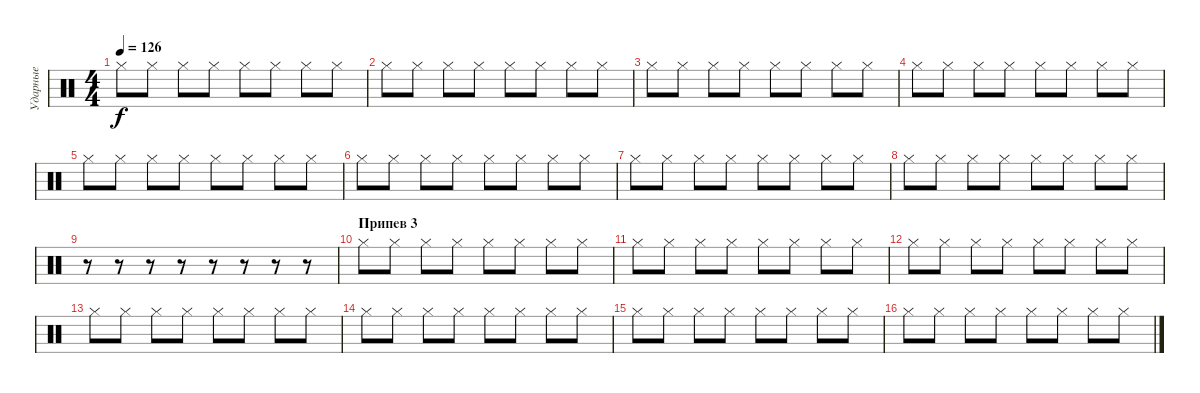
\track ("Ударные" "Ударные") {instrument percussion}
\staff {score}
\articulation defaults
\ts (4 4)
\tempo 126
\clef neutral
\ks c "Hi-Hat (closed)".8{dy f} "Hi-Hat (closed)".8 "Hi-Hat (closed)".8 "Hi-Hat (closed)".8 "Hi-Hat (closed)".8 "Hi-Hat (closed)".8 "Hi-Hat (closed)".8 "Hi-Hat (closed)".8
|
"Hi-Hat (closed)".8 "Hi-Hat (closed)".8 "Hi-Hat (closed)".8 "Hi-Hat (closed)".8 "Hi-Hat (closed)".8 "Hi-Hat (closed)".8 "Hi-Hat (closed)".8 "Hi-Hat (closed)".8 |
"Hi-Hat (closed)".8 "Hi-Hat (closed)".8 "Hi-Hat (closed)".8 "Hi-Hat (closed)".8 "Hi-Hat (closed)".8 "Hi-Hat (closed)".8 "Hi-Hat (closed)".8 "Hi-Hat (closed)".8 |
"Hi-Hat (closed)".8 "Hi-Hat (closed)".8 "Hi-Hat (closed)".8 "Hi-Hat (closed)".8 "Hi-Hat (closed)".8 "Hi-Hat (closed)".8 "Hi-Hat (closed)".8 "Hi-Hat (closed)".8 |
"Hi-Hat (closed)".8 "Hi-Hat (closed)".8 "Hi-Hat (closed)".8 "Hi-Hat (closed)".8 "Hi-Hat (closed)".8 "Hi-Hat (closed)".8 "Hi-Hat (closed)".8 "Hi-Hat (closed)".8 |
"Hi-Hat (closed)".8 "Hi-Hat (closed)".8 "Hi-Hat (closed)".8 "Hi-Hat (closed)".8 "Hi-Hat (closed)".8 "Hi-Hat (closed)".8 "Hi-Hat (closed)".8 "Hi-Hat (closed)".8 |
"Hi-Hat (closed)".8 "Hi-Hat (closed)".8 "Hi-Hat (closed)".8 "Hi-Hat (closed)".8 "Hi-Hat (closed)".8 "Hi-Hat (closed)".8 "Hi-Hat (closed)".8 "Hi-Hat (closed)".8 |
"Hi-Hat (closed)".8 "Hi-Hat (closed)".8 "Hi-Hat (closed)".8 "Hi-Hat (closed)".8 "Hi-Hat (closed)".8 "Hi-Hat (closed)".8 "Hi-Hat (closed)".8 "Hi-Hat (closed)".8 |
r.8 r.8 r.8 r.8 r.8 r.8 r.8 r.8 |
\section ("" "Припев 3")
"Hi-Hat (closed)".8 "Hi-Hat (closed)".8 "Hi-Hat (closed)".8 "Hi-Hat (closed)".8 "Hi-Hat (closed)".8 "Hi-Hat (closed)".8 "Hi-Hat (closed)".8 "Hi-Hat (closed)".8 |
"Hi-Hat (closed)".8 "Hi-Hat (closed)".8 "Hi-Hat (closed)".8 "Hi-Hat (closed)".8 "Hi-Hat (closed)".8 "Hi-Hat (closed)".8 "Hi-Hat (closed)".8 "Hi-Hat (closed)".8 |
"Hi-Hat (closed)".8 "Hi-Hat (closed)".8 "Hi-Hat (closed)".8 "Hi-Hat (closed)".8 "Hi-Hat (closed)".8 "Hi-Hat (closed)".8 "Hi-Hat (closed)".8 "Hi-Hat (closed)".8 |
"Hi-Hat (closed)".8 "Hi-Hat (closed)".8 "Hi-Hat (closed)".8 "Hi-Hat (closed)".8 "Hi-Hat (closed)".8 "Hi-Hat (closed)".8 "Hi-Hat (closed)".8 "Hi-Hat (closed)".8 |
"Hi-Hat (closed)".8 "Hi-Hat (closed)".8 "Hi-Hat (closed)".8 "Hi-Hat (closed)".8 "Hi-Hat (closed)".8 "Hi-Hat (closed)".8 "Hi-Hat (closed)".8 "Hi-Hat (closed)".8 |
"Hi-Hat (closed)".8 "Hi-Hat (closed)".8 "Hi-Hat (closed)".8 "Hi-Hat (closed)".8 "Hi-Hat (closed)".8 "Hi-Hat (closed)".8 "Hi-Hat (closed)".8 "Hi-Hat (closed)".8 |
"Hi-Hat (closed)".8 "Hi-Hat (closed)".8 "Hi-Hat (closed)".8 "Hi-Hat (closed)".8 "Hi-Hat (closed)".8 "Hi-Hat (closed)".8 "Hi-Hat (closed)".8 "Hi-Hat (closed)".8
